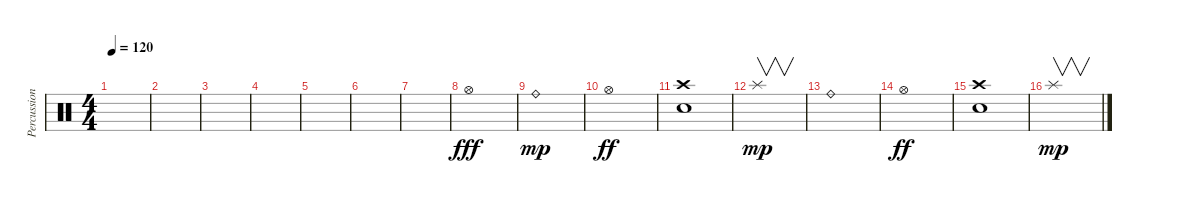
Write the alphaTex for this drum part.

\track ("Percussions" "Percussion") {instrument percussion}
\staff {score}
\articulation defaults
\ts (4 4)
\tempo 120
\clef neutral
\ks c
|
|
|
|
|
|
|
"Hi-Hat (open)".1{dy fff} |
"Ride (bell)".1{dy mp} |
"Hi-Hat (open)".1{dy ff} |
("Electric Snare (hit)" "Crash high (hit)").1 |
"Splash (hit)".1{v dy mp} |
"Ride (bell)".1 |
"Hi-Hat (open)".1{dy ff} |
("Electric Snare (hit)" "Crash high (hit)").1 |
"Splash (hit)".1{v dy mp}
